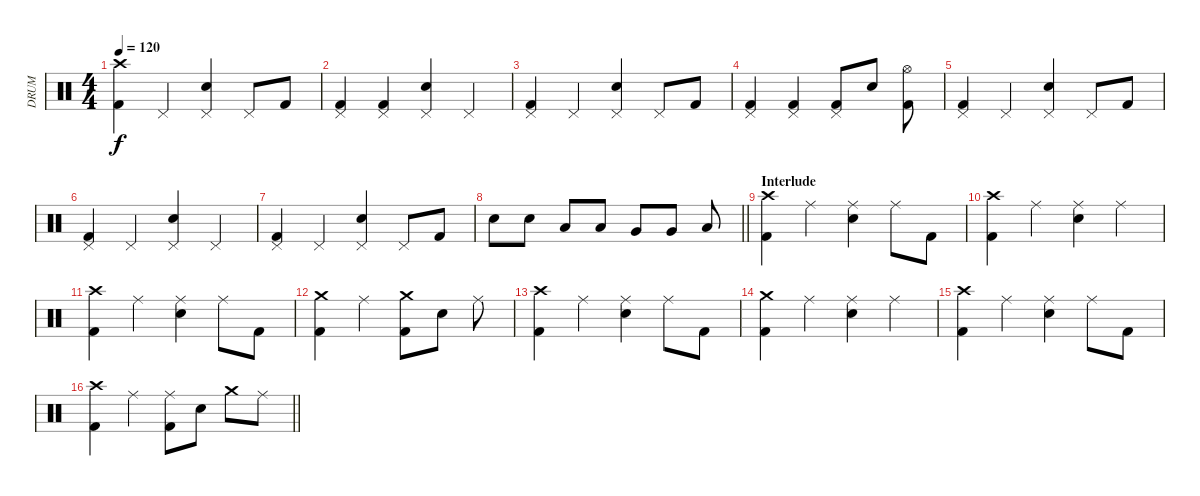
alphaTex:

\track ("DRUM" "DRUM") {instrument percussion}
\staff {score}
\articulation defaults
\ts (4 4)
\tempo 120
\clef neutral
\ks c
("Kick (hit) 2" "Crash high (hit)").4{dy f} "Pedal Hi-Hat (hit)".4 ("Pedal Hi-Hat (hit)" "Electric Snare (hit)").4 "Pedal Hi-Hat (hit)".8 "Kick (hit) 2".8 |
("Pedal Hi-Hat (hit)" "Kick (hit) 2").4 ("Pedal Hi-Hat (hit)" "Kick (hit) 2").4 ("Pedal Hi-Hat (hit)" "Electric Snare (hit)").4 "Pedal Hi-Hat (hit)".4 |
("Kick (hit) 2" "Pedal Hi-Hat (hit)").4 "Pedal Hi-Hat (hit)".4 ("Pedal Hi-Hat (hit)" "Electric Snare (hit)").4 "Pedal Hi-Hat (hit)".8 "Kick (hit) 2".8 |
("Pedal Hi-Hat (hit)" "Kick (hit) 2").4 ("Pedal Hi-Hat (hit)" "Kick (hit) 2").4 ("Pedal Hi-Hat (hit)" "Kick (hit) 2").8 "Electric Snare (hit)".8 ("Hi-Hat (open)" "Kick (hit) 2").8 |
("Pedal Hi-Hat (hit)" "Kick (hit) 2").4 "Pedal Hi-Hat (hit)".4 ("Pedal Hi-Hat (hit)" "Electric Snare (hit)").4 "Pedal Hi-Hat (hit)".8 "Kick (hit) 2".8 |
("Pedal Hi-Hat (hit)" "Kick (hit) 2").4 "Pedal Hi-Hat (hit)".4 ("Pedal Hi-Hat (hit)" "Electric Snare (hit)").4 "Pedal Hi-Hat (hit)".4 |
("Kick (hit) 2" "Pedal Hi-Hat (hit)").4 "Pedal Hi-Hat (hit)".4 ("Pedal Hi-Hat (hit)" "Electric Snare (hit)").4 "Pedal Hi-Hat (hit)".8 "Kick (hit) 2".8 |
\barLineRight lightlight "Electric Snare (hit)".8 "Electric Snare (hit)".8 "Low Tom (hit)".8 "Low Tom (hit)".8 "Very Low Tom (hit)".8 "Very Low Tom (hit)".8 "Low Floor Tom (hit)".8
|
\section ("" "Interlude")
("Kick (hit) 2" "Crash high (hit)").4 "Ride (middle)".4 ("Ride (middle)" "Electric Snare (hit)").4 "Ride (middle)".8 "Kick (hit) 2".8 |
("Kick (hit) 2" "Crash high (hit)").4 "Ride (middle)".4 ("Ride (middle)" "Electric Snare (hit)").4 "Ride (middle)".4 |
("Kick (hit) 2" "Crash high (hit)").4 "Ride (middle)".4 ("Ride (middle)" "Electric Snare (hit)").4 "Ride (middle)".8 "Kick (hit) 2".8 |
("Crash medium (hit)" "Kick (hit) 2").4 "Ride (middle)".4 ("Crash medium (hit)" "Kick (hit) 2").8 "Electric Snare (hit)".8 "Ride (middle)".8 |
("Kick (hit) 2" "Crash high (hit)").4 "Ride (middle)".4 ("Ride (middle)" "Electric Snare (hit)").4 "Ride (middle)".8 "Kick (hit) 2".8 |
("Crash medium (hit)" "Kick (hit) 2").4 "Ride (middle)".4 ("Ride (middle)" "Electric Snare (hit)").4 "Ride (middle)".4 |
("Kick (hit) 2" "Crash high (hit)").4 "Ride (middle)".4 ("Ride (middle)" "Electric Snare (hit)").4 "Ride (middle)".8 "Kick (hit) 2".8 |
\barLineRight lightlight
("Crash high (hit)" "Kick (hit) 2").4 "Ride (middle)".4 ("Ride (middle)" "Kick (hit) 2").8 "Electric Snare (hit)".8 "Crash medium (hit)".8 "Ride (middle)".8
